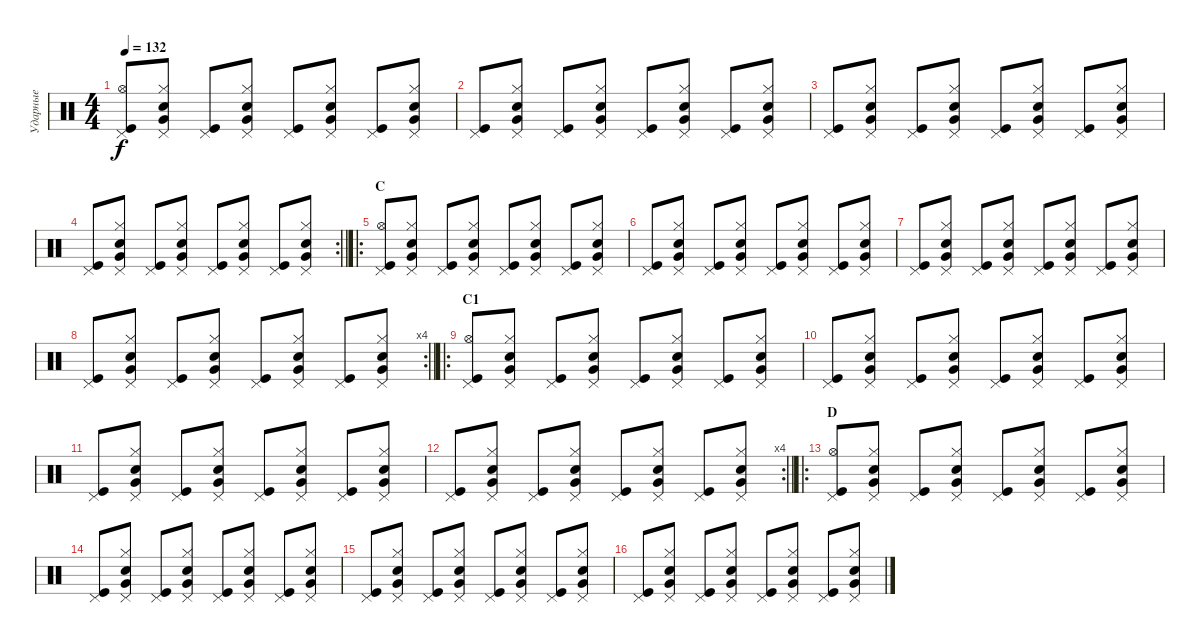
\track ("Ударные" "Ударные") {instrument percussion}
\staff {score}
\articulation defaults
\ts (4 4)
\tempo 132
\clef neutral
\ks c
("Pedal Hi-Hat (hit)" "Hi-Hat (open)" "Kick (hit)").8{dy f} ("Pedal Hi-Hat (hit)" "Hi-Hat (closed)" "Electric Snare (hit)" "Very Low Tom (hit)").8 ("Pedal Hi-Hat (hit)" "Kick (hit)").8 ("Pedal Hi-Hat (hit)" "Hi-Hat (closed)" "Electric Snare (hit)" "Very Low Tom (hit)").8 ("Pedal Hi-Hat (hit)" "Kick (hit)").8 ("Pedal Hi-Hat (hit)" "Hi-Hat (closed)" "Electric Snare (hit)" "Very Low Tom (hit)").8 ("Pedal Hi-Hat (hit)" "Kick (hit)").8 ("Pedal Hi-Hat (hit)" "Hi-Hat (closed)" "Electric Snare (hit)" "Very Low Tom (hit)").8 |
("Pedal Hi-Hat (hit)" "Kick (hit)").8 ("Pedal Hi-Hat (hit)" "Hi-Hat (closed)" "Electric Snare (hit)" "Very Low Tom (hit)").8 ("Pedal Hi-Hat (hit)" "Kick (hit)").8 ("Pedal Hi-Hat (hit)" "Hi-Hat (closed)" "Electric Snare (hit)" "Very Low Tom (hit)").8 ("Pedal Hi-Hat (hit)" "Kick (hit)").8 ("Pedal Hi-Hat (hit)" "Hi-Hat (closed)" "Electric Snare (hit)" "Very Low Tom (hit)").8 ("Pedal Hi-Hat (hit)" "Kick (hit)").8 ("Pedal Hi-Hat (hit)" "Hi-Hat (closed)" "Electric Snare (hit)" "Very Low Tom (hit)").8 |
("Pedal Hi-Hat (hit)" "Kick (hit)").8 ("Pedal Hi-Hat (hit)" "Hi-Hat (closed)" "Electric Snare (hit)" "Very Low Tom (hit)").8 ("Pedal Hi-Hat (hit)" "Kick (hit)").8 ("Pedal Hi-Hat (hit)" "Hi-Hat (closed)" "Electric Snare (hit)" "Very Low Tom (hit)").8 ("Pedal Hi-Hat (hit)" "Kick (hit)").8 ("Pedal Hi-Hat (hit)" "Hi-Hat (closed)" "Electric Snare (hit)" "Very Low Tom (hit)").8 ("Pedal Hi-Hat (hit)" "Kick (hit)").8 ("Pedal Hi-Hat (hit)" "Hi-Hat (closed)" "Electric Snare (hit)" "Very Low Tom (hit)").8 |
\rc 2
\barLineRight lightlight
("Pedal Hi-Hat (hit)" "Kick (hit)").8 ("Pedal Hi-Hat (hit)" "Hi-Hat (closed)" "Electric Snare (hit)" "Very Low Tom (hit)").8 ("Pedal Hi-Hat (hit)" "Kick (hit)").8 ("Pedal Hi-Hat (hit)" "Hi-Hat (closed)" "Electric Snare (hit)" "Very Low Tom (hit)").8 ("Pedal Hi-Hat (hit)" "Kick (hit)").8 ("Pedal Hi-Hat (hit)" "Hi-Hat (closed)" "Electric Snare (hit)" "Very Low Tom (hit)").8 ("Pedal Hi-Hat (hit)" "Kick (hit)").8 ("Pedal Hi-Hat (hit)" "Hi-Hat (closed)" "Electric Snare (hit)" "Very Low Tom (hit)").8 |
\ro
\section ("" "C")
("Pedal Hi-Hat (hit)" "Hi-Hat (open)" "Kick (hit)").8 ("Pedal Hi-Hat (hit)" "Hi-Hat (closed)" "Electric Snare (hit)" "Very Low Tom (hit)").8 ("Pedal Hi-Hat (hit)" "Kick (hit)").8 ("Pedal Hi-Hat (hit)" "Hi-Hat (closed)" "Electric Snare (hit)" "Very Low Tom (hit)").8 ("Pedal Hi-Hat (hit)" "Kick (hit)").8 ("Pedal Hi-Hat (hit)" "Hi-Hat (closed)" "Electric Snare (hit)" "Very Low Tom (hit)").8 ("Pedal Hi-Hat (hit)" "Kick (hit)").8 ("Pedal Hi-Hat (hit)" "Hi-Hat (closed)" "Electric Snare (hit)" "Very Low Tom (hit)").8 |
("Pedal Hi-Hat (hit)" "Kick (hit)").8 ("Pedal Hi-Hat (hit)" "Hi-Hat (closed)" "Electric Snare (hit)" "Very Low Tom (hit)").8 ("Pedal Hi-Hat (hit)" "Kick (hit)").8 ("Pedal Hi-Hat (hit)" "Hi-Hat (closed)" "Electric Snare (hit)" "Very Low Tom (hit)").8 ("Pedal Hi-Hat (hit)" "Kick (hit)").8 ("Pedal Hi-Hat (hit)" "Hi-Hat (closed)" "Electric Snare (hit)" "Very Low Tom (hit)").8 ("Pedal Hi-Hat (hit)" "Kick (hit)").8 ("Pedal Hi-Hat (hit)" "Hi-Hat (closed)" "Electric Snare (hit)" "Very Low Tom (hit)").8 |
("Pedal Hi-Hat (hit)" "Kick (hit)").8 ("Pedal Hi-Hat (hit)" "Hi-Hat (closed)" "Electric Snare (hit)" "Very Low Tom (hit)").8 ("Pedal Hi-Hat (hit)" "Kick (hit)").8 ("Pedal Hi-Hat (hit)" "Hi-Hat (closed)" "Electric Snare (hit)" "Very Low Tom (hit)").8 ("Pedal Hi-Hat (hit)" "Kick (hit)").8 ("Pedal Hi-Hat (hit)" "Hi-Hat (closed)" "Electric Snare (hit)" "Very Low Tom (hit)").8 ("Pedal Hi-Hat (hit)" "Kick (hit)").8 ("Pedal Hi-Hat (hit)" "Hi-Hat (closed)" "Electric Snare (hit)" "Very Low Tom (hit)").8 |
\rc 4
\barLineRight lightlight
("Pedal Hi-Hat (hit)" "Kick (hit)").8 ("Pedal Hi-Hat (hit)" "Hi-Hat (closed)" "Electric Snare (hit)" "Very Low Tom (hit)").8 ("Pedal Hi-Hat (hit)" "Kick (hit)").8 ("Pedal Hi-Hat (hit)" "Hi-Hat (closed)" "Electric Snare (hit)" "Very Low Tom (hit)").8 ("Pedal Hi-Hat (hit)" "Kick (hit)").8 ("Pedal Hi-Hat (hit)" "Hi-Hat (closed)" "Electric Snare (hit)" "Very Low Tom (hit)").8 ("Pedal Hi-Hat (hit)" "Kick (hit)").8 ("Pedal Hi-Hat (hit)" "Hi-Hat (closed)" "Electric Snare (hit)" "Very Low Tom (hit)").8 |
\ro
\section ("" "C1")
("Pedal Hi-Hat (hit)" "Hi-Hat (open)" "Kick (hit)").8 ("Pedal Hi-Hat (hit)" "Hi-Hat (closed)" "Electric Snare (hit)" "Very Low Tom (hit)").8 ("Pedal Hi-Hat (hit)" "Kick (hit)").8 ("Pedal Hi-Hat (hit)" "Hi-Hat (closed)" "Electric Snare (hit)" "Very Low Tom (hit)").8 ("Pedal Hi-Hat (hit)" "Kick (hit)").8 ("Pedal Hi-Hat (hit)" "Hi-Hat (closed)" "Electric Snare (hit)" "Very Low Tom (hit)").8 ("Pedal Hi-Hat (hit)" "Kick (hit)").8 ("Pedal Hi-Hat (hit)" "Hi-Hat (closed)" "Electric Snare (hit)" "Very Low Tom (hit)").8 |
("Pedal Hi-Hat (hit)" "Kick (hit)").8 ("Pedal Hi-Hat (hit)" "Hi-Hat (closed)" "Electric Snare (hit)" "Very Low Tom (hit)").8 ("Pedal Hi-Hat (hit)" "Kick (hit)").8 ("Pedal Hi-Hat (hit)" "Hi-Hat (closed)" "Electric Snare (hit)" "Very Low Tom (hit)").8 ("Pedal Hi-Hat (hit)" "Kick (hit)").8 ("Pedal Hi-Hat (hit)" "Hi-Hat (closed)" "Electric Snare (hit)" "Very Low Tom (hit)").8 ("Pedal Hi-Hat (hit)" "Kick (hit)").8 ("Pedal Hi-Hat (hit)" "Hi-Hat (closed)" "Electric Snare (hit)" "Very Low Tom (hit)").8 |
("Pedal Hi-Hat (hit)" "Kick (hit)").8 ("Pedal Hi-Hat (hit)" "Hi-Hat (closed)" "Electric Snare (hit)" "Very Low Tom (hit)").8 ("Pedal Hi-Hat (hit)" "Kick (hit)").8 ("Pedal Hi-Hat (hit)" "Hi-Hat (closed)" "Electric Snare (hit)" "Very Low Tom (hit)").8 ("Pedal Hi-Hat (hit)" "Kick (hit)").8 ("Pedal Hi-Hat (hit)" "Hi-Hat (closed)" "Electric Snare (hit)" "Very Low Tom (hit)").8 ("Pedal Hi-Hat (hit)" "Kick (hit)").8 ("Pedal Hi-Hat (hit)" "Hi-Hat (closed)" "Electric Snare (hit)" "Very Low Tom (hit)").8 |
\rc 4
\barLineRight lightlight
("Pedal Hi-Hat (hit)" "Kick (hit)").8 ("Pedal Hi-Hat (hit)" "Hi-Hat (closed)" "Electric Snare (hit)" "Very Low Tom (hit)").8 ("Pedal Hi-Hat (hit)" "Kick (hit)").8 ("Pedal Hi-Hat (hit)" "Hi-Hat (closed)" "Electric Snare (hit)" "Very Low Tom (hit)").8 ("Pedal Hi-Hat (hit)" "Kick (hit)").8 ("Pedal Hi-Hat (hit)" "Hi-Hat (closed)" "Electric Snare (hit)" "Very Low Tom (hit)").8 ("Pedal Hi-Hat (hit)" "Kick (hit)").8 ("Pedal Hi-Hat (hit)" "Hi-Hat (closed)" "Electric Snare (hit)" "Very Low Tom (hit)").8 |
\ro
\section ("" "D")
("Pedal Hi-Hat (hit)" "Hi-Hat (open)" "Kick (hit)").8 ("Pedal Hi-Hat (hit)" "Hi-Hat (closed)" "Electric Snare (hit)" "Very Low Tom (hit)").8 ("Pedal Hi-Hat (hit)" "Kick (hit)").8 ("Pedal Hi-Hat (hit)" "Hi-Hat (closed)" "Electric Snare (hit)" "Very Low Tom (hit)").8 ("Pedal Hi-Hat (hit)" "Kick (hit)").8 ("Pedal Hi-Hat (hit)" "Hi-Hat (closed)" "Electric Snare (hit)" "Very Low Tom (hit)").8 ("Pedal Hi-Hat (hit)" "Kick (hit)").8 ("Pedal Hi-Hat (hit)" "Hi-Hat (closed)" "Electric Snare (hit)" "Very Low Tom (hit)").8 |
("Pedal Hi-Hat (hit)" "Kick (hit)").8 ("Pedal Hi-Hat (hit)" "Hi-Hat (closed)" "Electric Snare (hit)" "Very Low Tom (hit)").8 ("Pedal Hi-Hat (hit)" "Kick (hit)").8 ("Pedal Hi-Hat (hit)" "Hi-Hat (closed)" "Electric Snare (hit)" "Very Low Tom (hit)").8 ("Pedal Hi-Hat (hit)" "Kick (hit)").8 ("Pedal Hi-Hat (hit)" "Hi-Hat (closed)" "Electric Snare (hit)" "Very Low Tom (hit)").8 ("Pedal Hi-Hat (hit)" "Kick (hit)").8 ("Pedal Hi-Hat (hit)" "Hi-Hat (closed)" "Electric Snare (hit)" "Very Low Tom (hit)").8 |
("Pedal Hi-Hat (hit)" "Kick (hit)").8 ("Pedal Hi-Hat (hit)" "Hi-Hat (closed)" "Electric Snare (hit)" "Very Low Tom (hit)").8 ("Pedal Hi-Hat (hit)" "Kick (hit)").8 ("Pedal Hi-Hat (hit)" "Hi-Hat (closed)" "Electric Snare (hit)" "Very Low Tom (hit)").8 ("Pedal Hi-Hat (hit)" "Kick (hit)").8 ("Pedal Hi-Hat (hit)" "Hi-Hat (closed)" "Electric Snare (hit)" "Very Low Tom (hit)").8 ("Pedal Hi-Hat (hit)" "Kick (hit)").8 ("Pedal Hi-Hat (hit)" "Hi-Hat (closed)" "Electric Snare (hit)" "Very Low Tom (hit)").8 |
("Pedal Hi-Hat (hit)" "Kick (hit)").8 ("Pedal Hi-Hat (hit)" "Hi-Hat (closed)" "Electric Snare (hit)" "Very Low Tom (hit)").8 ("Pedal Hi-Hat (hit)" "Kick (hit)").8 ("Pedal Hi-Hat (hit)" "Hi-Hat (closed)" "Electric Snare (hit)" "Very Low Tom (hit)").8 ("Pedal Hi-Hat (hit)" "Kick (hit)").8 ("Pedal Hi-Hat (hit)" "Hi-Hat (closed)" "Electric Snare (hit)" "Very Low Tom (hit)").8 ("Pedal Hi-Hat (hit)" "Kick (hit)").8 ("Pedal Hi-Hat (hit)" "Hi-Hat (closed)" "Electric Snare (hit)" "Very Low Tom (hit)").8
